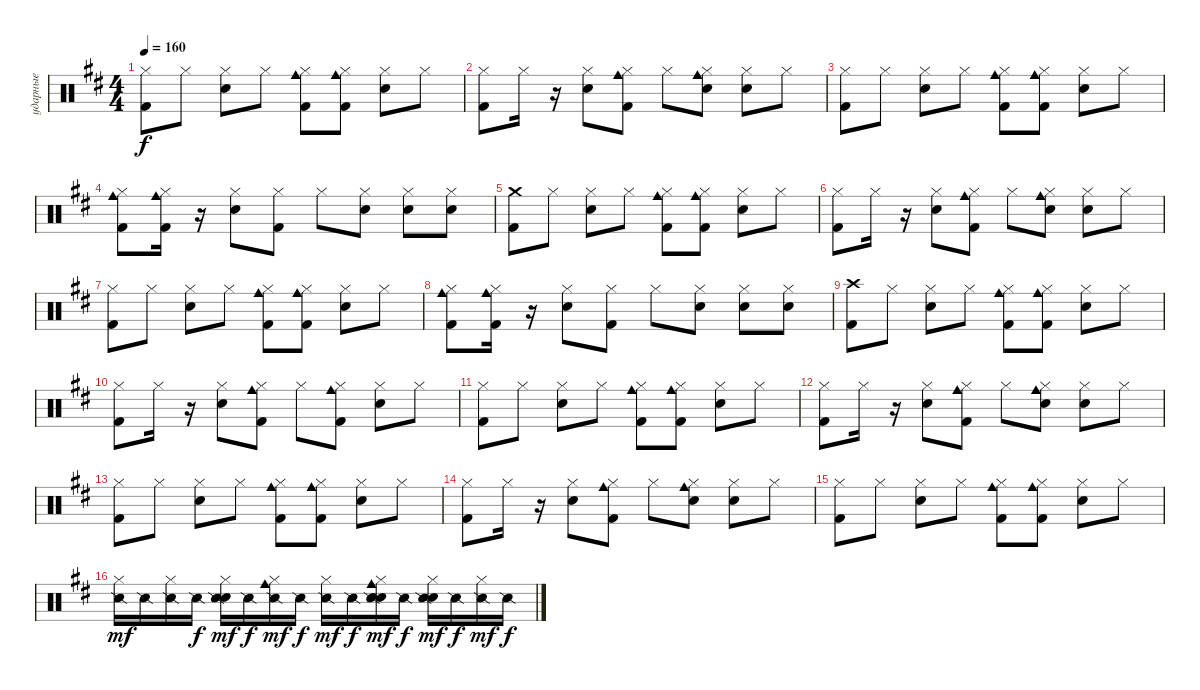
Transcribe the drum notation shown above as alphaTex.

\track ("ударные" "ударные") {instrument percussion}
\staff {score}
\articulation defaults
\ts (4 4)
\tempo 160
\clef neutral
\ks bminor
("Hi-Hat (closed)" "Kick (hit) 2").8{dy f} "Hi-Hat (closed)".8 ("Hi-Hat (closed)" "Snare (hit) 2").8 "Hi-Hat (closed)".8 ("Hi-Hat (closed)" "Cowbell medium (hit)" "Kick (hit) 2").8 ("Hi-Hat (closed)" "Cowbell medium (hit)" "Kick (hit) 2").8 ("Hi-Hat (closed)" "Snare (hit) 2").8 "Hi-Hat (closed)".8 |
("Hi-Hat (closed)" "Kick (hit) 2").8 "Hi-Hat (closed)".16 r.16 ("Hi-Hat (closed)" "Snare (hit) 2").8 ("Hi-Hat (closed)" "Kick (hit) 2" "Cowbell medium (hit)").8 "Hi-Hat (closed)".8 ("Hi-Hat (closed)" "Hand Clap (hit)" "Cowbell medium (hit)").8 ("Hi-Hat (closed)" "Snare (hit) 2").8 "Hi-Hat (closed)".8 |
("Hi-Hat (closed)" "Kick (hit) 2").8 "Hi-Hat (closed)".8 ("Hi-Hat (closed)" "Snare (hit) 2").8 "Hi-Hat (closed)".8 ("Hi-Hat (closed)" "Cowbell medium (hit)" "Kick (hit) 2").8 ("Hi-Hat (closed)" "Cowbell medium (hit)" "Kick (hit) 2").8 ("Hi-Hat (closed)" "Snare (hit) 2").8 "Hi-Hat (closed)".8 |
("Cowbell medium (hit)" "Hi-Hat (closed)" "Kick (hit) 2").8 ("Cowbell medium (hit)" "Kick (hit) 2" "Hi-Hat (closed)").16 r.16 ("Hi-Hat (closed)" "Snare (hit) 2").8 ("Hi-Hat (closed)" "Kick (hit) 2").8 "Hi-Hat (closed)".8 ("Hi-Hat (closed)" "Snare (hit) 2").8 ("Hi-Hat (closed)" "Snare (hit) 2").8 ("Snare (hit) 2" "Hi-Hat (closed)").8 |
("Crash medium (hit)" "Kick (hit) 2").8 "Hi-Hat (closed)".8 ("Hi-Hat (closed)" "Snare (hit) 2").8 "Hi-Hat (closed)".8 ("Hi-Hat (closed)" "Cowbell medium (hit)" "Kick (hit) 2").8 ("Hi-Hat (closed)" "Cowbell medium (hit)" "Kick (hit) 2").8 ("Hi-Hat (closed)" "Snare (hit) 2").8 "Hi-Hat (closed)".8 |
("Hi-Hat (closed)" "Kick (hit) 2").8 "Hi-Hat (closed)".16 r.16 ("Hi-Hat (closed)" "Snare (hit) 2").8 ("Hi-Hat (closed)" "Kick (hit) 2" "Cowbell medium (hit)").8 "Hi-Hat (closed)".8 ("Hi-Hat (closed)" "Hand Clap (hit)" "Cowbell medium (hit)").8 ("Hi-Hat (closed)" "Snare (hit) 2").8 "Hi-Hat (closed)".8 |
("Hi-Hat (closed)" "Kick (hit) 2").8 "Hi-Hat (closed)".8 ("Hi-Hat (closed)" "Snare (hit) 2").8 "Hi-Hat (closed)".8 ("Hi-Hat (closed)" "Cowbell medium (hit)" "Kick (hit) 2").8 ("Hi-Hat (closed)" "Cowbell medium (hit)" "Kick (hit) 2").8 ("Hi-Hat (closed)" "Snare (hit) 2").8 "Hi-Hat (closed)".8 |
("Cowbell medium (hit)" "Hi-Hat (closed)" "Kick (hit) 2").8 ("Cowbell medium (hit)" "Kick (hit) 2" "Hi-Hat (closed)").16 r.16 ("Hi-Hat (closed)" "Snare (hit) 2").8 ("Hi-Hat (closed)" "Kick (hit) 2").8 "Hi-Hat (closed)".8 ("Hi-Hat (closed)" "Snare (hit) 2").8 ("Hi-Hat (closed)" "Snare (hit) 2").8 ("Snare (hit) 2" "Hi-Hat (closed)").8 |
("Crash high (hit)" "Kick (hit) 2").8 "Hi-Hat (closed)".8 ("Hi-Hat (closed)" "Snare (hit) 2").8 "Hi-Hat (closed)".8 ("Hi-Hat (closed)" "Cowbell medium (hit)" "Kick (hit) 2").8 ("Hi-Hat (closed)" "Cowbell medium (hit)" "Kick (hit) 2").8 ("Hi-Hat (closed)" "Snare (hit) 2").8 "Hi-Hat (closed)".8 |
("Hi-Hat (closed)" "Kick (hit) 2").8 "Hi-Hat (closed)".16 r.16 ("Hi-Hat (closed)" "Snare (hit) 2").8 ("Hi-Hat (closed)" "Kick (hit) 2" "Cowbell medium (hit)").8 "Hi-Hat (closed)".8 ("Hi-Hat (closed)" "Kick (hit) 2" "Cowbell medium (hit)").8 ("Hi-Hat (closed)" "Snare (hit) 2").8 "Hi-Hat (closed)".8 |
("Hi-Hat (closed)" "Kick (hit) 2").8 "Hi-Hat (closed)".8 ("Hi-Hat (closed)" "Snare (hit) 2").8 "Hi-Hat (closed)".8 ("Hi-Hat (closed)" "Cowbell medium (hit)" "Kick (hit) 2").8 ("Hi-Hat (closed)" "Cowbell medium (hit)" "Kick (hit) 2").8 ("Hi-Hat (closed)" "Snare (hit) 2").8 "Hi-Hat (closed)".8 |
("Hi-Hat (closed)" "Kick (hit) 2").8 "Hi-Hat (closed)".16 r.16 ("Hi-Hat (closed)" "Snare (hit) 2").8 ("Hi-Hat (closed)" "Kick (hit) 2" "Cowbell medium (hit)").8 "Hi-Hat (closed)".8 ("Hi-Hat (closed)" "Hand Clap (hit)" "Cowbell medium (hit)").8 ("Hi-Hat (closed)" "Snare (hit) 2").8 "Hi-Hat (closed)".8 |
("Hi-Hat (closed)" "Kick (hit) 2").8 "Hi-Hat (closed)".8 ("Hi-Hat (closed)" "Snare (hit) 2").8 "Hi-Hat (closed)".8 ("Hi-Hat (closed)" "Cowbell medium (hit)" "Kick (hit) 2").8 ("Hi-Hat (closed)" "Cowbell medium (hit)" "Kick (hit) 2").8 ("Hi-Hat (closed)" "Snare (hit) 2").8 "Hi-Hat (closed)".8 |
("Hi-Hat (closed)" "Kick (hit) 2").8 "Hi-Hat (closed)".16 r.16 ("Hi-Hat (closed)" "Snare (hit) 2").8 ("Hi-Hat (closed)" "Kick (hit) 2" "Cowbell medium (hit)").8 "Hi-Hat (closed)".8 ("Hi-Hat (closed)" "Hand Clap (hit)" "Cowbell medium (hit)").8 ("Hi-Hat (closed)" "Snare (hit) 2").8 "Hi-Hat (closed)".8 |
("Hi-Hat (closed)" "Kick (hit) 2").8 "Hi-Hat (closed)".8 ("Hi-Hat (closed)" "Snare (hit) 2").8 "Hi-Hat (closed)".8 ("Hi-Hat (closed)" "Cowbell medium (hit)" "Kick (hit) 2").8 ("Hi-Hat (closed)" "Cowbell medium (hit)" "Kick (hit) 2").8 ("Hi-Hat (closed)" "Snare (hit) 2").8 "Hi-Hat (closed)".8 |
("Hi-Hat (closed)" "Snare (side stick) 2").16{dy mf} "Snare (side stick) 2".16 ("Hi-Hat (closed)" "Snare (side stick) 2").16 "Snare (side stick) 2".16{dy f} ("Snare (hit) 2" "Hi-Hat (closed)" "Snare (side stick) 2").16{dy mf} "Snare (side stick) 2".16{dy f} ("Cowbell medium (hit)" "Hi-Hat (closed)" "Snare (side stick) 2").16{dy mf} "Snare (side stick) 2".16{dy f} ("Hi-Hat (closed)" "Snare (side stick) 2").16{dy mf} "Snare (side stick) 2".16{dy f} ("Cowbell medium (hit)" "Hi-Hat (closed)" "Hand Clap (hit)" "Snare (side stick) 2" "Hand Clap (hit)").16{dy mf} "Snare (side stick) 2".16{dy f} ("Hi-Hat (closed)" "Snare (hit) 2" "Snare (side stick) 2").16{dy mf} "Snare (side stick) 2".16{dy f} ("Hi-Hat (closed)" "Snare (side stick) 2").16{dy mf} "Snare (side stick) 2".16{dy f}
